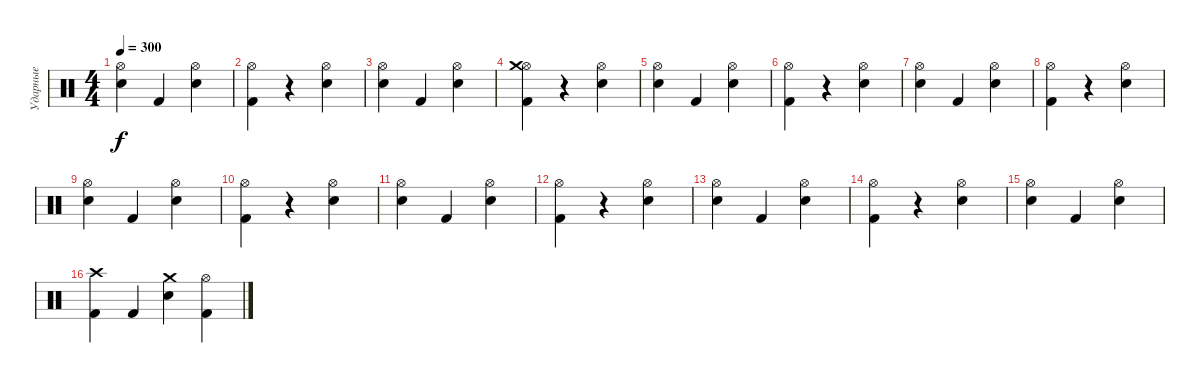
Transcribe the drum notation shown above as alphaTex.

\track ("Ударные" "Ударные") {instrument percussion}
\staff
\articulation defaults
\ts (4 4)
\tempo 300
\clef neutral
\ks c
("Snare (hit)" "Hi-Hat (open)").4{dy f} "Kick (hit) 2".4 ("Electric Snare (hit)" "Hi-Hat (open)").4 |
("Hi-Hat (open)" "Kick (hit) 2").4 r.4 ("Electric Snare (hit)" "Hi-Hat (open)").4 |
("Snare (hit)" "Hi-Hat (open)").4 "Kick (hit) 2".4 ("Electric Snare (hit)" "Hi-Hat (open)").4 |
("Hi-Hat (open)" "Kick (hit) 2" "Crash medium (hit)").4 r.4 ("Electric Snare (hit)" "Hi-Hat (open)").4 |
("Snare (hit)" "Hi-Hat (open)").4 "Kick (hit) 2".4 ("Electric Snare (hit)" "Hi-Hat (open)").4 |
("Hi-Hat (open)" "Kick (hit) 2").4 r.4 ("Electric Snare (hit)" "Hi-Hat (open)").4 |
("Snare (hit)" "Hi-Hat (open)").4 "Kick (hit) 2".4 ("Electric Snare (hit)" "Hi-Hat (open)").4 |
("Hi-Hat (open)" "Kick (hit) 2").4 r.4 ("Electric Snare (hit)" "Hi-Hat (open)").4 |
("Snare (hit)" "Hi-Hat (open)").4 "Kick (hit) 2".4 ("Electric Snare (hit)" "Hi-Hat (open)").4 |
("Hi-Hat (open)" "Kick (hit) 2").4 r.4 ("Electric Snare (hit)" "Hi-Hat (open)").4 |
("Snare (hit)" "Hi-Hat (open)").4 "Kick (hit) 2".4 ("Electric Snare (hit)" "Hi-Hat (open)").4 |
("Hi-Hat (open)" "Kick (hit) 2").4 r.4 ("Electric Snare (hit)" "Hi-Hat (open)").4 |
("Snare (hit)" "Hi-Hat (open)").4 "Kick (hit) 2".4 ("Electric Snare (hit)" "Hi-Hat (open)").4 |
("Hi-Hat (open)" "Kick (hit) 2").4 r.4 ("Electric Snare (hit)" "Hi-Hat (open)").4 |
("Snare (hit)" "Hi-Hat (open)").4 "Kick (hit) 2".4 ("Electric Snare (hit)" "Hi-Hat (open)").4 |
("Kick (hit) 2" "Crash high (hit)").4 "Kick (hit) 2".4 ("Electric Snare (hit)" "Crash medium (hit)").4 ("Kick (hit) 2" "Hi-Hat (open)").4
